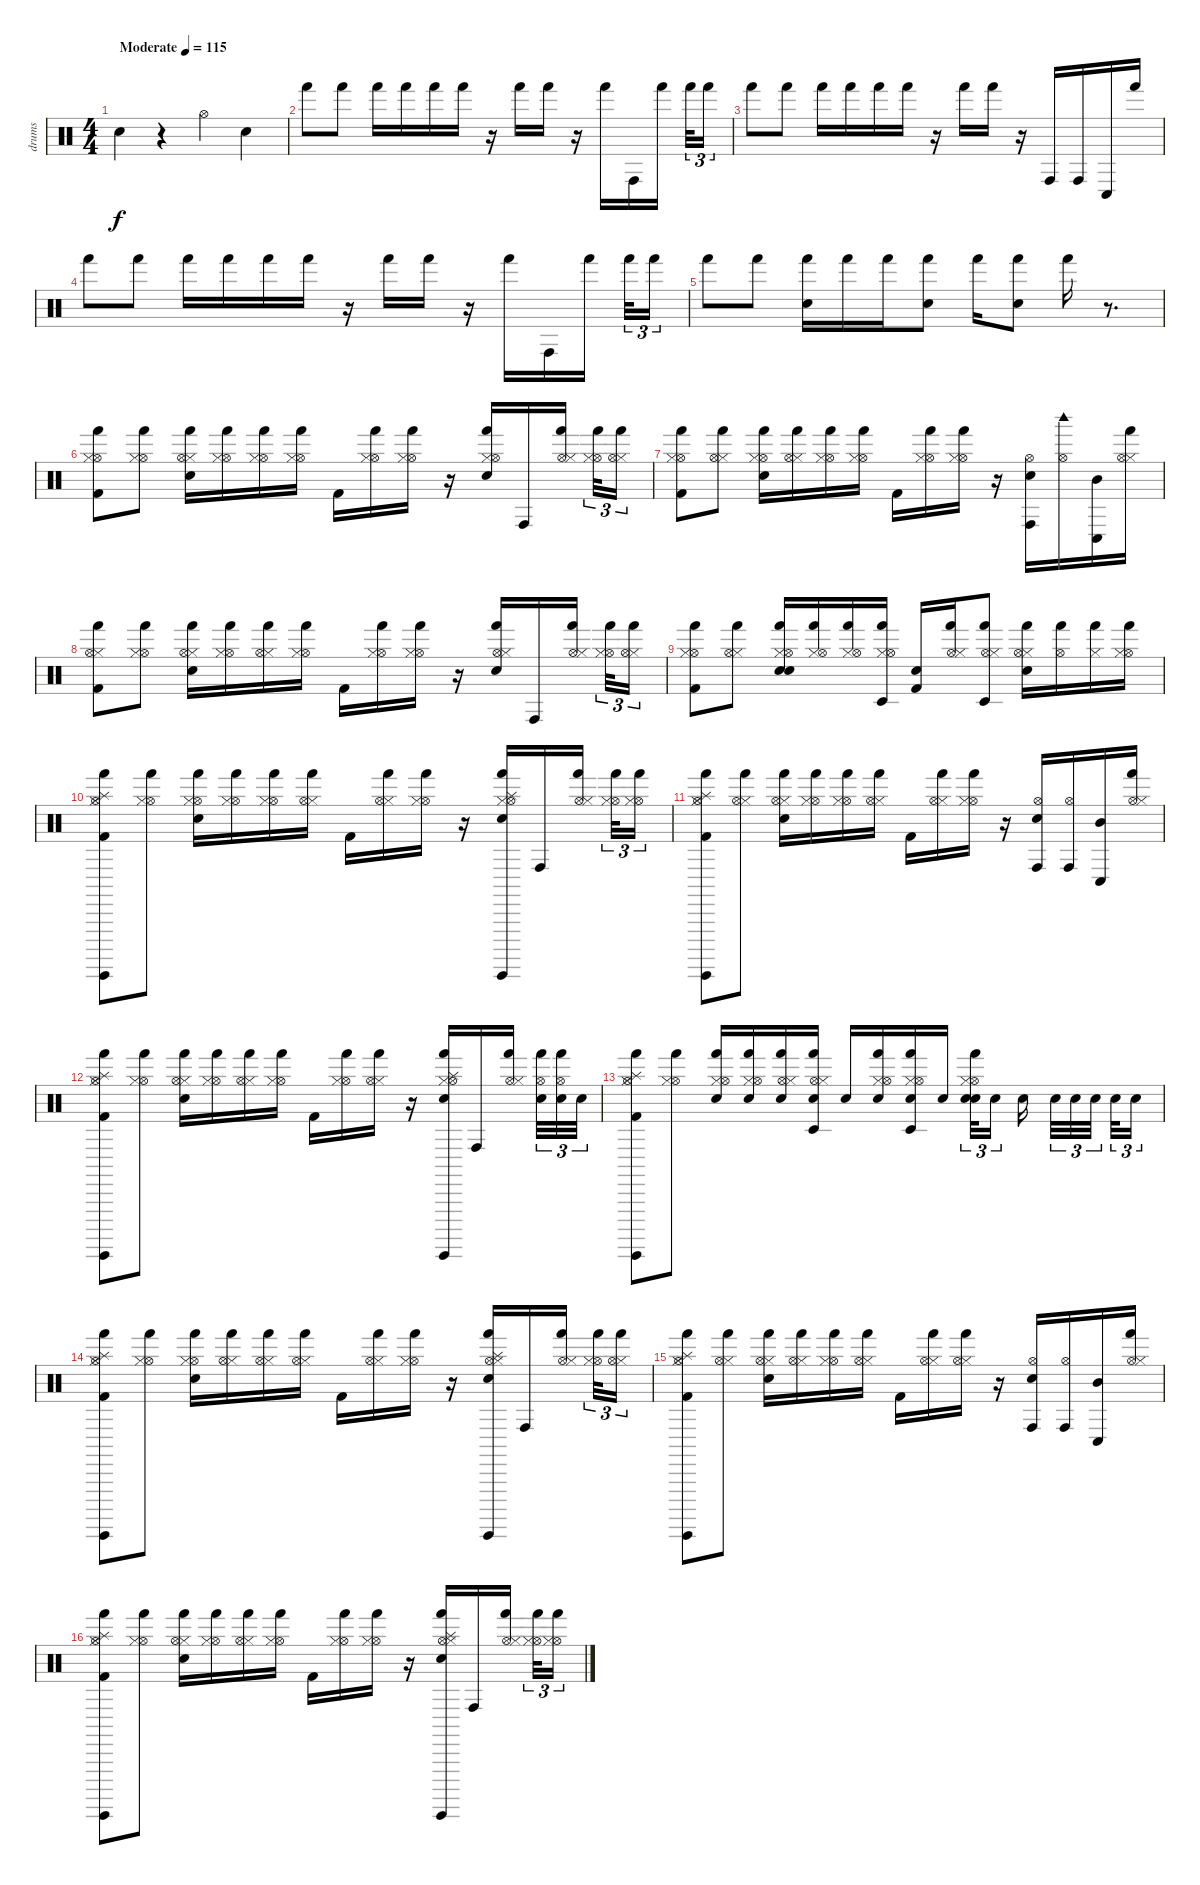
\track ("drums" "drums") {instrument percussion}
\staff {score}
\articulation defaults
\ts (4 4)
\tempo (115 "Moderate")
\clef neutral
\ks c "Hand Clap (hit)".4{dy f}
r.4 "Hi-Hat (open)".4 "Electric Snare (hit)".4 |
"Hand (hit)".8 "Hand (hit)".8 "Hand (hit)".16 "Hand (hit)".16 "Hand (hit)".16 "Hand (hit)".16 r.16 "Hand (hit)".16 "Hand (hit)".16 r.16 "Hand (hit)".16 "Conga high (hit)".16 "Hand (hit)".16 "Hand (hit)".32{tu (3 2)} "Hand (hit)".16{tu (3 2)} |
"Hand (hit)".8 "Hand (hit)".8 "Hand (hit)".16 "Hand (hit)".16 "Hand (hit)".16 "Hand (hit)".16 r.16 "Hand (hit)".16 "Hand (hit)".16 r.16 "Conga high (hit)".16 "Conga high (hit)".16 "Conga low (hit)".16 "Hand (hit)".16 |
"Hand (hit)".8 "Hand (hit)".8 "Hand (hit)".16 "Hand (hit)".16 "Hand (hit)".16 "Hand (hit)".16 r.16 "Hand (hit)".16 "Hand (hit)".16 r.16 "Hand (hit)".16 "Conga high (hit)".16 "Hand (hit)".16 "Hand (hit)".32{tu (3 2)} "Hand (hit)".16{tu (3 2)} |
"Hand (hit)".8 "Hand (hit)".8 ("Hand Clap (hit)" "Hand (hit)").16 "Hand (hit)".16 "Hand (hit)".16 ("Electric Snare (hit)" "Hand (hit)").8 "Hand (hit)".16 ("Hand (hit)" "Electric Snare (hit)").8 "Hand (hit)".16 r.8{d} |
("Hi-Hat (open)" "Hand (hit)" "Kick (hit) 2" "Hi-Hat (closed)").8 ("Hi-Hat (open)" "Hand (hit)" "Hi-Hat (closed)").8 ("Hand Clap (hit)" "Hi-Hat (closed)" "Hand (hit)" "Hi-Hat (open)").16 ("Hi-Hat (open)" "Hand (hit)" "Hi-Hat (closed)").16 ("Hand (hit)" "Hi-Hat (open)" "Hi-Hat (closed)").16 ("Hi-Hat (open)" "Hand (hit)" "Hi-Hat (closed)").16 "Kick (hit) 2".16 ("Hi-Hat (open)" "Hand (hit)" "Hi-Hat (closed)").16 ("Hi-Hat (open)" "Hand (hit)" "Hi-Hat (closed)").16 r.16 ("Hi-Hat (closed)" "Hand (hit)" "Hi-Hat (open)" "Hand Clap (hit)").16 "Conga high (hit)".16 ("Hand (hit)" "Hi-Hat (open)" "Hi-Hat (closed)").16 ("Hi-Hat (open)" "Hi-Hat (closed)" "Hand (hit)").32{tu (3 2)} ("Hi-Hat (closed)" "Hi-Hat (open)" "Hand (hit)").16{tu (3 2)} |
("Kick (hit) 2" "Hand (hit)" "Hi-Hat (open)" "Hi-Hat (closed)").8 ("Hi-Hat (closed)" "Hand (hit)" "Hi-Hat (open)").8 ("Hi-Hat (open)" "Hand (hit)" "Hi-Hat (closed)" "Hand Clap (hit)").16 ("Hi-Hat (closed)" "Hi-Hat (open)" "Hand (hit)").16 ("Hand (hit)" "Hi-Hat (open)" "Hi-Hat (closed)").16 ("Hand (hit)" "Hi-Hat (open)" "Hi-Hat (closed)").16 "Kick (hit) 2".16 ("Hi-Hat (open)" "Hand (hit)" "Hi-Hat (closed)").16 ("Hi-Hat (open)" "Hi-Hat (closed)" "Hand (hit)").16 r.16 ("Hand Clap (hit)" "Conga high (hit)" "Hi-Hat (open)").16 ("Hi-Hat (open)" "Woodblock high (hit)").16 ("Conga low (hit)" "Mid Tom (hit)").16 ("Hi-Hat (closed)" "Hand (hit)" "Hi-Hat (open)").16 |
("Hi-Hat (closed)" "Hand (hit)" "Kick (hit) 2" "Hi-Hat (open)").8 ("Hi-Hat (open)" "Hi-Hat (closed)" "Hand (hit)").8 ("Hi-Hat (closed)" "Hi-Hat (open)" "Hand Clap (hit)" "Hand (hit)").16 ("Hand (hit)" "Hi-Hat (open)" "Hi-Hat (closed)").16 ("Hi-Hat (closed)" "Hi-Hat (open)" "Hand (hit)").16 ("Hi-Hat (open)" "Hi-Hat (closed)" "Hand (hit)").16 "Kick (hit) 2".16 ("Hand (hit)" "Hi-Hat (open)" "Hi-Hat (closed)").16 ("Hi-Hat (open)" "Hand (hit)" "Hi-Hat (closed)").16 r.16 ("Hi-Hat (open)" "Hand (hit)" "Hand Clap (hit)" "Hi-Hat (closed)").16 "Conga high (hit)".16 ("Hi-Hat (open)" "Hand (hit)" "Hi-Hat (closed)").16 ("Hi-Hat (open)" "Hi-Hat (closed)" "Hand (hit)").32{tu (3 2)} ("Hand (hit)" "Hi-Hat (closed)" "Hi-Hat (open)").16{tu (3 2)} |
("Hi-Hat (open)" "Hi-Hat (closed)" "Kick (hit) 2" "Hand (hit)").8 ("Hi-Hat (closed)" "Hand (hit)" "Hi-Hat (open)").8 ("Hand (hit)" "Electric Snare (hit)" "Hi-Hat (closed)" "Hand Clap (hit)" "Hi-Hat (open)").16 ("Hi-Hat (closed)" "Hand (hit)" "Hi-Hat (open)").16 ("Hi-Hat (closed)" "Hand (hit)" "Hi-Hat (open)").16 ("Hi-Hat (closed)" "Timbale low (hit)" "Hi-Hat (open)" "Hand (hit)").16 ("Kick (hit) 2" "Hand Clap (hit)").16 ("Hand (hit)" "Hi-Hat (open)" "Hi-Hat (closed)").16 ("Hi-Hat (open)" "Hi-Hat (closed)" "Timbale low (hit)" "Hand (hit)").8 ("Hi-Hat (closed)" "Hand Clap (hit)" "Hi-Hat (open)" "Hand (hit)").16 ("Hand (hit)" "Hi-Hat (open)").16 ("Hi-Hat (closed)" "Hand (hit)").16 ("Hi-Hat (open)" "Hand (hit)" "Hi-Hat (closed)").16 |
("Guiro (hit)" "Kick (hit) 2" "Hand (hit)" "Hi-Hat (open)" "Hi-Hat (closed)" "Splash (hit)").8 ("Hand (hit)" "Hi-Hat (open)" "Hi-Hat (closed)").8 ("Hand Clap (hit)" "Hand (hit)" "Hi-Hat (open)" "Hi-Hat (closed)").16 ("Hi-Hat (open)" "Hand (hit)" "Hi-Hat (closed)").16 ("Hi-Hat (open)" "Hand (hit)" "Hi-Hat (closed)").16 ("Hi-Hat (closed)" "Hand (hit)" "Hi-Hat (open)").16 "Kick (hit) 2".16 ("Hi-Hat (closed)" "Hand (hit)" "Hi-Hat (open)").16 ("Hand (hit)" "Hi-Hat (open)" "Hi-Hat (closed)").16 r.16 ("Splash (hit)" "Hi-Hat (closed)" "Hand (hit)" "Hi-Hat (open)" "Hand Clap (hit)" "Guiro (hit)").16 "Conga high (hit)".16 ("Hand (hit)" "Hi-Hat (open)" "Hi-Hat (closed)").16 ("Hand (hit)" "Hi-Hat (open)" "Hi-Hat (closed)").32{tu (3 2)} ("Hi-Hat (open)" "Hand (hit)" "Hi-Hat (closed)").16{tu (3 2)} |
("Hi-Hat (open)" "Hand (hit)" "Hi-Hat (closed)" "Kick (hit) 2" "Splash (hit)" "Guiro (hit)").8 ("Hi-Hat (closed)" "Hand (hit)" "Hi-Hat (open)").8 ("Hi-Hat (closed)" "Hand (hit)" "Hi-Hat (open)" "Hand Clap (hit)").16 ("Hi-Hat (open)" "Hand (hit)" "Hi-Hat (closed)").16 ("Hi-Hat (open)" "Hand (hit)" "Hi-Hat (closed)").16 ("Hand (hit)" "Hi-Hat (closed)" "Hi-Hat (open)").16 "Kick (hit) 2".16 ("Hand (hit)" "Hi-Hat (closed)" "Hi-Hat (open)").16 ("Hi-Hat (open)" "Hi-Hat (closed)" "Hand (hit)").16 r.16 ("Hi-Hat (open)" "Conga high (hit)" "Hand Clap (hit)").16 ("Conga high (hit)" "Hi-Hat (open)").16 ("Mid Tom (hit)" "Conga low (hit)").16 ("Hi-Hat (open)" "Hi-Hat (closed)" "Hand (hit)").16 |
("Hand (hit)" "Kick (hit) 2" "Splash (hit)" "Hi-Hat (open)" "Hi-Hat (closed)" "Guiro (hit)").8 ("Hi-Hat (open)" "Hand (hit)" "Hi-Hat (closed)").8 ("Hand Clap (hit)" "Hi-Hat (closed)" "Hand (hit)" "Hi-Hat (open)").16 ("Hi-Hat (open)" "Hi-Hat (closed)" "Hand (hit)").16 ("Hi-Hat (closed)" "Hand (hit)" "Hi-Hat (open)").16 ("Hi-Hat (open)" "Hi-Hat (closed)" "Hand (hit)").16 "Kick (hit) 2".16 ("Hi-Hat (open)" "Hi-Hat (closed)" "Hand (hit)").16 ("Hi-Hat (closed)" "Hi-Hat (open)" "Hand (hit)").16 r.16 ("Hand (hit)" "Hi-Hat (closed)" "Splash (hit)" "Guiro (hit)" "Hi-Hat (open)" "Hand Clap (hit)").16 "Conga high (hit)".16 ("Hand (hit)" "Hi-Hat (open)" "Hi-Hat (closed)").16 ("Hand (hit)" "Hi-Hat (open)" "Electric Snare (hit)").32{tu (3 2)} ("Hi-Hat (open)" "Hand (hit)" "Electric Snare (hit)").32{tu (3 2)} "Electric Snare (hit)".32{tu (3 2)} |
("Hi-Hat (open)" "Hi-Hat (closed)" "Hand (hit)" "Splash (hit)" "Guiro (hit)" "Kick (hit) 2").8 ("Hand (hit)" "Hi-Hat (open)" "Hi-Hat (closed)").8 ("Hand (hit)" "Hi-Hat (closed)" "Electric Snare (hit)" "Hi-Hat (open)").16 ("Hi-Hat (closed)" "Hand (hit)" "Electric Snare (hit)" "Hi-Hat (open)").16 ("Electric Snare (hit)" "Hand (hit)" "Hi-Hat (open)" "Hi-Hat (closed)").16 ("Hi-Hat (open)" "Electric Snare (hit)" "Hand (hit)" "Hi-Hat (closed)" "Timbale low (hit)").16 "Electric Snare (hit)".16 ("Hi-Hat (closed)" "Electric Snare (hit)" "Hi-Hat (open)" "Hand (hit)").16 ("Hand (hit)" "Electric Snare (hit)" "Hi-Hat (closed)" "Hi-Hat (open)" "Timbale low (hit)").16 "Electric Snare (hit)".16 ("Electric Snare (hit)" "Hi-Hat (open)" "Hi-Hat (closed)" "Hand Clap (hit)" "Hand (hit)").32{tu (3 2)} "Electric Snare (hit)".16{tu (3 2)} "Electric Snare (hit)".16 "Electric Snare (hit)".32{tu (3 2)} "Electric Snare (hit)".32{tu (3 2)} "Electric Snare (hit)".32{tu (3 2)} "Electric Snare (hit)".32{tu (3 2)} "Electric Snare (hit)".16{tu (3 2)} |
("Kick (hit) 2" "Hi-Hat (open)" "Hand (hit)" "Hi-Hat (closed)" "Guiro (hit)" "Splash (hit)").8 ("Hi-Hat (open)" "Hand (hit)" "Hi-Hat (closed)").8 ("Hand Clap (hit)" "Hi-Hat (open)" "Hand (hit)" "Hi-Hat (closed)").16 ("Hi-Hat (closed)" "Hi-Hat (open)" "Hand (hit)").16 ("Hi-Hat (closed)" "Hand (hit)" "Hi-Hat (open)").16 ("Hi-Hat (closed)" "Hand (hit)" "Hi-Hat (open)").16 "Kick (hit) 2".16 ("Hand (hit)" "Hi-Hat (closed)" "Hi-Hat (open)").16 ("Hi-Hat (open)" "Hand (hit)" "Hi-Hat (closed)").16 r.16 ("Hi-Hat (open)" "Splash (hit)" "Guiro (hit)" "Hand Clap (hit)" "Hi-Hat (closed)" "Hand (hit)").16 "Conga high (hit)".16 ("Hi-Hat (open)" "Hand (hit)" "Hi-Hat (closed)").16 ("Hi-Hat (open)" "Hand (hit)" "Hi-Hat (closed)").32{tu (3 2)} ("Hi-Hat (closed)" "Hi-Hat (open)" "Hand (hit)").16{tu (3 2)} |
("Hi-Hat (closed)" "Hand (hit)" "Hi-Hat (open)" "Splash (hit)" "Guiro (hit)" "Kick (hit) 2").8 ("Hi-Hat (closed)" "Hand (hit)" "Hi-Hat (open)").8 ("Hi-Hat (closed)" "Hand Clap (hit)" "Hi-Hat (open)" "Hand (hit)").16 ("Hi-Hat (closed)" "Hi-Hat (open)" "Hand (hit)").16 ("Hi-Hat (open)" "Hand (hit)" "Hi-Hat (closed)").16 ("Hand (hit)" "Hi-Hat (closed)" "Hi-Hat (open)").16 "Kick (hit) 2".16 ("Hi-Hat (closed)" "Hand (hit)" "Hi-Hat (open)").16 ("Hi-Hat (closed)" "Hi-Hat (open)" "Hand (hit)").16 r.16 ("Hi-Hat (open)" "Conga high (hit)" "Hand Clap (hit)").16 ("Conga high (hit)" "Hi-Hat (open)").16 ("Conga low (hit)" "Mid Tom (hit)").16 ("Hi-Hat (open)" "Hi-Hat (closed)" "Hand (hit)").16 |
("Guiro (hit)" "Splash (hit)" "Kick (hit) 2" "Hi-Hat (open)" "Hi-Hat (closed)" "Hand (hit)").8 ("Hi-Hat (open)" "Hi-Hat (closed)" "Hand (hit)").8 ("Hi-Hat (closed)" "Hand (hit)" "Hand Clap (hit)" "Hi-Hat (open)").16 ("Hi-Hat (open)" "Hand (hit)" "Hi-Hat (closed)").16 ("Hi-Hat (closed)" "Hand (hit)" "Hi-Hat (open)").16 ("Hi-Hat (open)" "Hi-Hat (closed)" "Hand (hit)").16 "Kick (hit) 2".16 ("Hi-Hat (open)" "Hi-Hat (closed)" "Hand (hit)").16 ("Hi-Hat (open)" "Hi-Hat (closed)" "Hand (hit)").16 r.16 ("Hi-Hat (open)" "Hi-Hat (closed)" "Hand (hit)" "Splash (hit)" "Guiro (hit)" "Hand Clap (hit)").16 "Conga high (hit)".16 ("Hi-Hat (open)" "Hi-Hat (closed)" "Hand (hit)").16 ("Hi-Hat (open)" "Hi-Hat (closed)" "Hand (hit)").32{tu (3 2)} ("Hi-Hat (open)" "Hi-Hat (closed)" "Hand (hit)").16{tu (3 2)}
